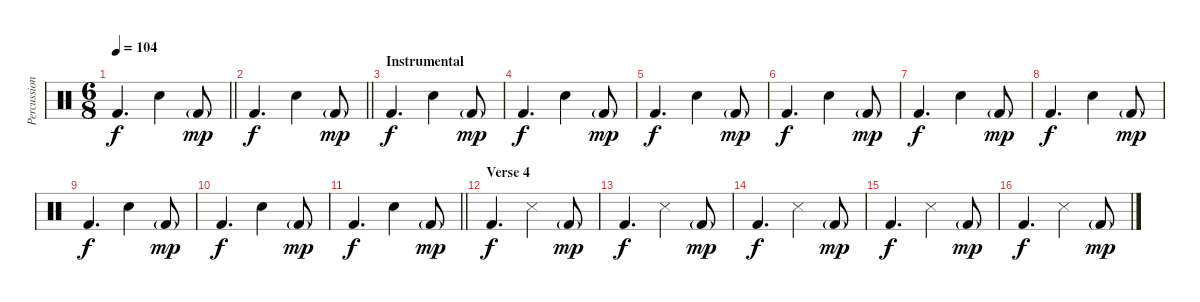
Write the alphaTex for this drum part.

\track ("Percussion" "Percussion") {instrument percussion}
\staff {score}
\articulation defaults
\ts (6 8)
\tempo 104
\clef neutral
\barLineRight lightlight
\ks c "Kick (hit) 2".4{d dy f} "Snare (hit) 2".4 "Kick (hit) 2"{g}.8{dy mp}
|
\section ("" "")
\barLineRight lightlight "Kick (hit) 2".4{d dy f} "Snare (hit) 2".4 "Kick (hit) 2"{g}.8{dy mp}
|
\section ("" "Instrumental")
"Kick (hit) 2".4{d dy f} "Snare (hit) 2".4 "Kick (hit) 2"{g}.8{dy mp} |
"Kick (hit) 2".4{d dy f} "Snare (hit) 2".4 "Kick (hit) 2"{g}.8{dy mp} |
"Kick (hit) 2".4{d dy f} "Snare (hit) 2".4 "Kick (hit) 2"{g}.8{dy mp} |
"Kick (hit) 2".4{d dy f} "Snare (hit) 2".4 "Kick (hit) 2"{g}.8{dy mp} |
"Kick (hit) 2".4{d dy f} "Snare (hit) 2".4 "Kick (hit) 2"{g}.8{dy mp} |
"Kick (hit) 2".4{d dy f} "Snare (hit) 2".4 "Kick (hit) 2"{g}.8{dy mp} |
"Kick (hit) 2".4{d dy f} "Snare (hit) 2".4 "Kick (hit) 2"{g}.8{dy mp} |
"Kick (hit) 2".4{d dy f} "Snare (hit) 2".4 "Kick (hit) 2"{g}.8{dy mp} |
\barLineRight lightlight "Kick (hit) 2".4{d dy f} "Snare (hit) 2".4 "Kick (hit) 2"{g}.8{dy mp}
|
\section ("" "Verse 4")
"Kick (hit) 2".4{d dy f} "Snare (side stick) 3".4 "Kick (hit) 2"{g}.8{dy mp} |
"Kick (hit) 2".4{d dy f} "Snare (side stick) 3".4 "Kick (hit) 2"{g}.8{dy mp} |
"Kick (hit) 2".4{d dy f} "Snare (side stick) 3".4 "Kick (hit) 2"{g}.8{dy mp} |
"Kick (hit) 2".4{d dy f} "Snare (side stick) 3".4 "Kick (hit) 2"{g}.8{dy mp} |
"Kick (hit) 2".4{d dy f} "Snare (side stick) 3".4 "Kick (hit) 2"{g}.8{dy mp}
